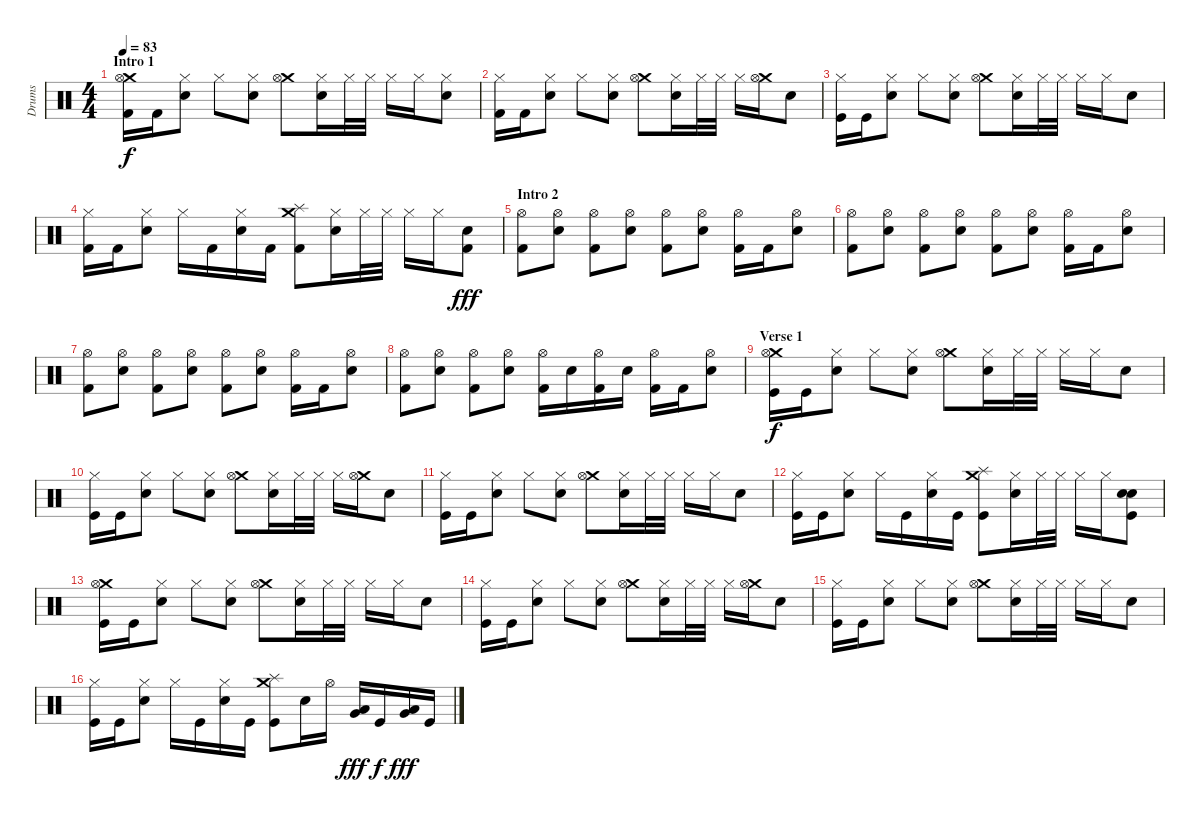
\track ("Drums" "Drums") {instrument percussion}
\staff {score}
\articulation defaults
\ts (4 4)
\section ("" "Intro 1")
\tempo 83
\clef neutral
\ks c
("Crash medium (hit)" "Hi-Hat (open)" "Kick (hit) 2").16{dy f volume 13} "Kick (hit) 2".16 ("Hi-Hat (closed)" "Electric Snare (hit)").8 "Hi-Hat (closed)".8 ("Hi-Hat (closed)" "Electric Snare (hit)").8 ("Crash medium (hit)" "Hi-Hat (open)").8 ("Hi-Hat (closed)" "Electric Snare (hit)").16 "Hi-Hat (closed)".32 "Hi-Hat (closed)".32 "Hi-Hat (closed)".16 "Hi-Hat (closed)".16 ("Hi-Hat (closed)" "Electric Snare (hit)").8 |
("Hi-Hat (closed)" "Kick (hit) 2").16 "Kick (hit) 2".16 ("Hi-Hat (closed)" "Electric Snare (hit)").8 "Hi-Hat (closed)".8 ("Hi-Hat (closed)" "Electric Snare (hit)").8 ("Crash medium (hit)" "Hi-Hat (open)").8 ("Hi-Hat (closed)" "Electric Snare (hit)").16 "Hi-Hat (closed)".32 "Hi-Hat (closed)".32 "Hi-Hat (closed)".16 ("Crash medium (hit)" "Hi-Hat (open)").16 "Electric Snare (hit)".8 |
("Hi-Hat (closed)" "Kick (hit)").16 "Kick (hit)".16 ("Hi-Hat (closed)" "Electric Snare (hit)").8 "Hi-Hat (closed)".8 ("Hi-Hat (closed)" "Electric Snare (hit)").8 ("Crash medium (hit)" "Hi-Hat (open)").8 ("Hi-Hat (closed)" "Electric Snare (hit)").16 "Hi-Hat (closed)".32 "Hi-Hat (closed)".32 "Hi-Hat (closed)".16 "Hi-Hat (closed)".16 "Electric Snare (hit)".8 |
("Hi-Hat (closed)" "Kick (hit) 2").16 "Kick (hit) 2".16 ("Hi-Hat (closed)" "Electric Snare (hit)").8 "Hi-Hat (closed)".16 "Kick (hit) 2".16 ("Hi-Hat (closed)" "Electric Snare (hit)").16 "Kick (hit) 2".16 ("Crash medium (hit)" "Splash (hit)" "Kick (hit) 2").8 ("Hi-Hat (closed)" "Electric Snare (hit)").16 "Hi-Hat (closed)".32 "Hi-Hat (closed)".32 "Hi-Hat (closed)".16 "Hi-Hat (closed)".16 ("Electric Snare (hit)" "Kick (hit) 2").8{dy fff volume 16} |
\section ("" "Intro 2")
("Hi-Hat (open)" "Kick (hit) 2").8 ("Hi-Hat (open)" "Electric Snare (hit)").8 ("Hi-Hat (open)" "Kick (hit) 2").8 ("Hi-Hat (open)" "Electric Snare (hit)").8 ("Hi-Hat (open)" "Kick (hit) 2").8 ("Hi-Hat (open)" "Electric Snare (hit)").8 ("Hi-Hat (open)" "Kick (hit) 2").16 "Kick (hit) 2".16 ("Hi-Hat (open)" "Electric Snare (hit)").8 |
("Hi-Hat (open)" "Kick (hit) 2").8 ("Hi-Hat (open)" "Electric Snare (hit)").8 ("Hi-Hat (open)" "Kick (hit) 2").8 ("Hi-Hat (open)" "Electric Snare (hit)").8 ("Hi-Hat (open)" "Kick (hit) 2").8 ("Hi-Hat (open)" "Electric Snare (hit)").8 ("Hi-Hat (open)" "Kick (hit) 2").16 "Kick (hit) 2".16 ("Hi-Hat (open)" "Electric Snare (hit)").8 |
("Hi-Hat (open)" "Kick (hit) 2").8 ("Hi-Hat (open)" "Electric Snare (hit)").8 ("Hi-Hat (open)" "Kick (hit) 2").8 ("Hi-Hat (open)" "Electric Snare (hit)").8 ("Hi-Hat (open)" "Kick (hit) 2").8 ("Hi-Hat (open)" "Electric Snare (hit)").8 ("Hi-Hat (open)" "Kick (hit) 2").16 "Kick (hit) 2".16 ("Hi-Hat (open)" "Electric Snare (hit)").8 |
("Hi-Hat (open)" "Kick (hit) 2").8 ("Hi-Hat (open)" "Electric Snare (hit)").8 ("Hi-Hat (open)" "Kick (hit) 2").8 ("Hi-Hat (open)" "Electric Snare (hit)").8 ("Hi-Hat (open)" "Kick (hit) 2").16 "Electric Snare (hit)".16 ("Hi-Hat (open)" "Kick (hit) 2").16 "Electric Snare (hit)".16 ("Hi-Hat (open)" "Kick (hit) 2").16 "Kick (hit) 2".16 ("Hi-Hat (open)" "Electric Snare (hit)").8 |
\section ("" "Verse 1")
("Crash medium (hit)" "Hi-Hat (open)" "Kick (hit)").16{dy f} "Kick (hit)".16 ("Hi-Hat (closed)" "Electric Snare (hit)").8 "Hi-Hat (closed)".8 ("Hi-Hat (closed)" "Electric Snare (hit)").8 ("Crash medium (hit)" "Hi-Hat (open)").8 ("Hi-Hat (closed)" "Electric Snare (hit)").16 "Hi-Hat (closed)".32 "Hi-Hat (closed)".32 "Hi-Hat (closed)".16 "Hi-Hat (closed)".16 "Electric Snare (hit)".8 |
("Hi-Hat (closed)" "Kick (hit)").16 "Kick (hit)".16 ("Hi-Hat (closed)" "Electric Snare (hit)").8 "Hi-Hat (closed)".8 ("Hi-Hat (closed)" "Electric Snare (hit)").8 ("Crash medium (hit)" "Hi-Hat (open)").8 ("Hi-Hat (closed)" "Electric Snare (hit)").16 "Hi-Hat (closed)".32 "Hi-Hat (closed)".32 "Hi-Hat (closed)".16 ("Crash medium (hit)" "Hi-Hat (open)").16 "Electric Snare (hit)".8 |
("Hi-Hat (closed)" "Kick (hit)").16 "Kick (hit)".16 ("Hi-Hat (closed)" "Electric Snare (hit)").8 "Hi-Hat (closed)".8 ("Hi-Hat (closed)" "Electric Snare (hit)").8 ("Crash medium (hit)" "Hi-Hat (open)").8 ("Hi-Hat (closed)" "Electric Snare (hit)").16 "Hi-Hat (closed)".32 "Hi-Hat (closed)".32 "Hi-Hat (closed)".16 "Hi-Hat (closed)".16 "Electric Snare (hit)".8 |
("Hi-Hat (closed)" "Kick (hit)").16 "Kick (hit)".16 ("Hi-Hat (closed)" "Electric Snare (hit)").8 "Hi-Hat (closed)".16 "Kick (hit)".16 ("Hi-Hat (closed)" "Electric Snare (hit)").16 "Kick (hit)".16 ("Crash medium (hit)" "Splash (hit)" "Kick (hit)").8 ("Hi-Hat (closed)" "Electric Snare (hit)").16 "Hi-Hat (closed)".32 "Hi-Hat (closed)".32 "Hi-Hat (closed)".16 "Hi-Hat (closed)".16 ("Electric Snare (hit)" "Electric Snare (hit)" "Kick (hit)").8 |
("Crash medium (hit)" "Hi-Hat (open)" "Kick (hit)").16 "Kick (hit)".16 ("Hi-Hat (closed)" "Electric Snare (hit)").8 "Hi-Hat (closed)".8 ("Hi-Hat (closed)" "Electric Snare (hit)").8 ("Crash medium (hit)" "Hi-Hat (open)").8 ("Hi-Hat (closed)" "Electric Snare (hit)").16 "Hi-Hat (closed)".32 "Hi-Hat (closed)".32 "Hi-Hat (closed)".16 "Hi-Hat (closed)".16 "Electric Snare (hit)".8 |
("Hi-Hat (closed)" "Kick (hit)").16 "Kick (hit)".16 ("Hi-Hat (closed)" "Electric Snare (hit)").8 "Hi-Hat (closed)".8 ("Hi-Hat (closed)" "Electric Snare (hit)").8 ("Crash medium (hit)" "Hi-Hat (open)").8 ("Hi-Hat (closed)" "Electric Snare (hit)").16 "Hi-Hat (closed)".32 "Hi-Hat (closed)".32 "Hi-Hat (closed)".16 ("Crash medium (hit)" "Hi-Hat (open)").16 "Electric Snare (hit)".8 |
("Hi-Hat (closed)" "Kick (hit)").16 "Kick (hit)".16 ("Hi-Hat (closed)" "Electric Snare (hit)").8 "Hi-Hat (closed)".8 ("Hi-Hat (closed)" "Electric Snare (hit)").8 ("Crash medium (hit)" "Hi-Hat (open)").8 ("Hi-Hat (closed)" "Electric Snare (hit)").16 "Hi-Hat (closed)".32 "Hi-Hat (closed)".32 "Hi-Hat (closed)".16 "Hi-Hat (closed)".16 "Electric Snare (hit)".8 |
("Hi-Hat (closed)" "Kick (hit)").16 "Kick (hit)".16 ("Hi-Hat (closed)" "Electric Snare (hit)").8 "Hi-Hat (closed)".16 "Kick (hit)".16 ("Hi-Hat (closed)" "Electric Snare (hit)").16 "Kick (hit)".16 ("Crash medium (hit)" "Splash (hit)" "Kick (hit)").8 "Electric Snare (hit)".16 "Hi-Hat (open)".16 ("Very Low Tom (hit)" "Low Tom (hit)").16{dy fff} "Kick (hit)".16{dy f} ("Low Floor Tom (hit)" "Very Low Tom (hit)").16{dy fff} "Kick (hit)".16
